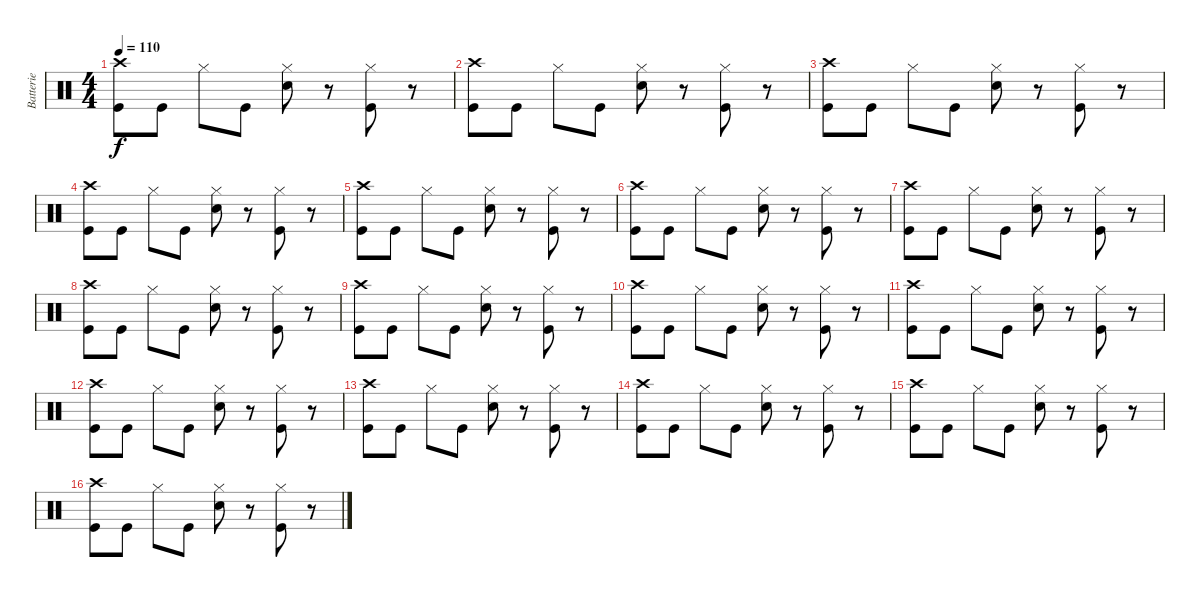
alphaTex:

\track ("Batterie" "Batterie") {instrument percussion}
\staff {score}
\articulation defaults
\ts (4 4)
\tempo 110
\clef neutral
\ks c
("Crash high (hit)" "Kick (hit)").8{dy f} "Kick (hit)".8 "Hi-Hat (closed)".8 "Kick (hit)".8 ("Hi-Hat (closed)" "Snare (hit) 2").8 r.8 ("Hi-Hat (closed)" "Kick (hit)").8 r.8 |
("Crash high (hit)" "Kick (hit)").8 "Kick (hit)".8 "Hi-Hat (closed)".8 "Kick (hit)".8 ("Hi-Hat (closed)" "Snare (hit) 2").8 r.8 ("Hi-Hat (closed)" "Kick (hit)").8 r.8 |
("Crash high (hit)" "Kick (hit)").8 "Kick (hit)".8 "Hi-Hat (closed)".8 "Kick (hit)".8 ("Hi-Hat (closed)" "Snare (hit) 2").8 r.8 ("Hi-Hat (closed)" "Kick (hit)").8 r.8 |
("Crash high (hit)" "Kick (hit)").8 "Kick (hit)".8 "Hi-Hat (closed)".8 "Kick (hit)".8 ("Hi-Hat (closed)" "Snare (hit) 2").8 r.8 ("Hi-Hat (closed)" "Kick (hit)").8 r.8 |
("Crash high (hit)" "Kick (hit)").8 "Kick (hit)".8 "Hi-Hat (closed)".8 "Kick (hit)".8 ("Hi-Hat (closed)" "Snare (hit) 2").8 r.8 ("Hi-Hat (closed)" "Kick (hit)").8 r.8 |
("Crash high (hit)" "Kick (hit)").8 "Kick (hit)".8 "Hi-Hat (closed)".8 "Kick (hit)".8 ("Hi-Hat (closed)" "Snare (hit) 2").8 r.8 ("Hi-Hat (closed)" "Kick (hit)").8 r.8 |
("Crash high (hit)" "Kick (hit)").8 "Kick (hit)".8 "Hi-Hat (closed)".8 "Kick (hit)".8 ("Hi-Hat (closed)" "Snare (hit) 2").8 r.8 ("Hi-Hat (closed)" "Kick (hit)").8 r.8 |
("Crash high (hit)" "Kick (hit)").8 "Kick (hit)".8 "Hi-Hat (closed)".8 "Kick (hit)".8 ("Hi-Hat (closed)" "Snare (hit) 2").8 r.8 ("Hi-Hat (closed)" "Kick (hit)").8 r.8 |
("Crash high (hit)" "Kick (hit)").8 "Kick (hit)".8 "Hi-Hat (closed)".8 "Kick (hit)".8 ("Hi-Hat (closed)" "Snare (hit) 2").8 r.8 ("Hi-Hat (closed)" "Kick (hit)").8 r.8 |
("Crash high (hit)" "Kick (hit)").8 "Kick (hit)".8 "Hi-Hat (closed)".8 "Kick (hit)".8 ("Hi-Hat (closed)" "Snare (hit) 2").8 r.8 ("Hi-Hat (closed)" "Kick (hit)").8 r.8 |
("Crash high (hit)" "Kick (hit)").8 "Kick (hit)".8 "Hi-Hat (closed)".8 "Kick (hit)".8 ("Hi-Hat (closed)" "Snare (hit) 2").8 r.8 ("Hi-Hat (closed)" "Kick (hit)").8 r.8 |
("Crash high (hit)" "Kick (hit)").8 "Kick (hit)".8 "Hi-Hat (closed)".8 "Kick (hit)".8 ("Hi-Hat (closed)" "Snare (hit) 2").8 r.8 ("Hi-Hat (closed)" "Kick (hit)").8 r.8 |
("Crash high (hit)" "Kick (hit)").8 "Kick (hit)".8 "Hi-Hat (closed)".8 "Kick (hit)".8 ("Hi-Hat (closed)" "Snare (hit) 2").8 r.8 ("Hi-Hat (closed)" "Kick (hit)").8 r.8 |
("Crash high (hit)" "Kick (hit)").8 "Kick (hit)".8 "Hi-Hat (closed)".8 "Kick (hit)".8 ("Hi-Hat (closed)" "Snare (hit) 2").8 r.8 ("Hi-Hat (closed)" "Kick (hit)").8 r.8 |
("Crash high (hit)" "Kick (hit)").8 "Kick (hit)".8 "Hi-Hat (closed)".8 "Kick (hit)".8 ("Hi-Hat (closed)" "Snare (hit) 2").8 r.8 ("Hi-Hat (closed)" "Kick (hit)").8 r.8 |
("Crash high (hit)" "Kick (hit)").8 "Kick (hit)".8 "Hi-Hat (closed)".8 "Kick (hit)".8 ("Hi-Hat (closed)" "Snare (hit) 2").8 r.8 ("Hi-Hat (closed)" "Kick (hit)").8 r.8
